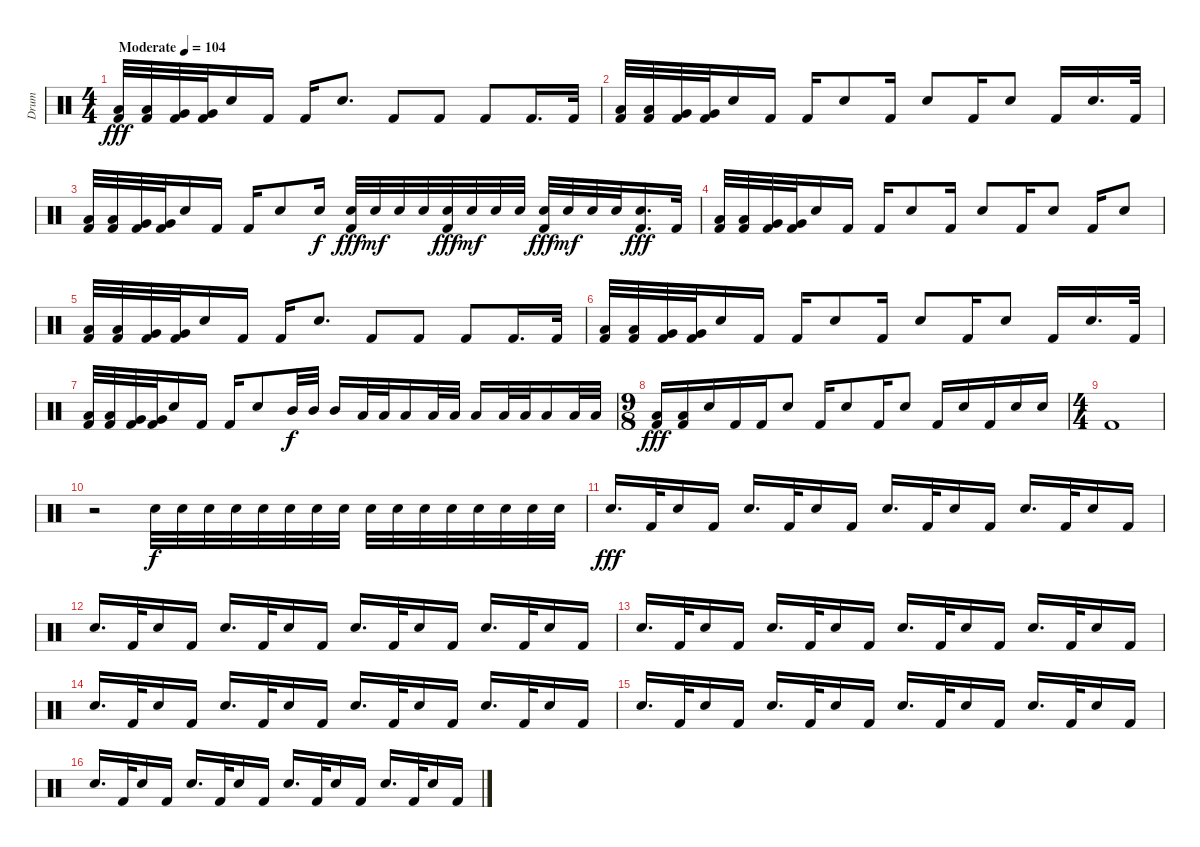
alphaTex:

\track ("Drum" "Drum") {instrument percussion}
\staff {score}
\articulation defaults
\ts (4 4)
\tempo (104 "Moderate")
\clef neutral
\ks c
("Low Tom (hit)" "Kick (hit) 2").32{dy fff} ("Low Tom (hit)" "Kick (hit) 2").32 ("Very Low Tom (hit)" "Kick (hit) 2").32 ("Very Low Tom (hit)" "Kick (hit) 2").32 "Electric Snare (hit)".16 "Kick (hit) 2".16 "Kick (hit) 2".16 "Electric Snare (hit)".8{d} "Kick (hit) 2".8 "Kick (hit) 2".8 "Kick (hit) 2".8 "Kick (hit) 2".16{d} "Kick (hit) 2".32 |
("Low Tom (hit)" "Kick (hit) 2").32 ("Low Tom (hit)" "Kick (hit) 2").32 ("Very Low Tom (hit)" "Kick (hit) 2").32 ("Very Low Tom (hit)" "Kick (hit) 2").32 "Electric Snare (hit)".16 "Kick (hit) 2".16 "Kick (hit) 2".16 "Electric Snare (hit)".8 "Kick (hit) 2".16 "Electric Snare (hit)".8 "Kick (hit) 2".16 "Electric Snare (hit)".8 "Kick (hit) 2".16 "Electric Snare (hit)".16{d} "Kick (hit) 2".32 |
("Low Tom (hit)" "Kick (hit) 2").32 ("Low Tom (hit)" "Kick (hit) 2").32 ("Very Low Tom (hit)" "Kick (hit) 2").32 ("Very Low Tom (hit)" "Kick (hit) 2").32 "Electric Snare (hit)".16 "Kick (hit) 2".16 "Kick (hit) 2".16 "Electric Snare (hit)".8 "Electric Snare (hit)".16{dy f} ("Electric Snare (hit)" "Kick (hit) 2").32{dy fff} "Electric Snare (hit)".32{dy mf} "Electric Snare (hit)".32 "Electric Snare (hit)".32 ("Electric Snare (hit)" "Kick (hit) 2").32{dy fff} "Electric Snare (hit)".32{dy mf} "Electric Snare (hit)".32 "Electric Snare (hit)".32 ("Electric Snare (hit)" "Kick (hit) 2").32{dy fff} "Electric Snare (hit)".32{dy mf} "Electric Snare (hit)".32 "Electric Snare (hit)".32 ("Electric Snare (hit)" "Kick (hit) 2").16{d dy fff} "Kick (hit) 2".32 |
("Low Tom (hit)" "Kick (hit) 2").32 ("Low Tom (hit)" "Kick (hit) 2").32 ("Very Low Tom (hit)" "Kick (hit) 2").32 ("Very Low Tom (hit)" "Kick (hit) 2").32 "Electric Snare (hit)".16 "Kick (hit) 2".16 "Kick (hit) 2".16 "Electric Snare (hit)".8 "Kick (hit) 2".16 "Electric Snare (hit)".8 "Kick (hit) 2".16 "Electric Snare (hit)".8 "Kick (hit) 2".16 "Electric Snare (hit)".8 |
("Low Tom (hit)" "Kick (hit) 2").32 ("Low Tom (hit)" "Kick (hit) 2").32 ("Very Low Tom (hit)" "Kick (hit) 2").32 ("Very Low Tom (hit)" "Kick (hit) 2").32 "Electric Snare (hit)".16 "Kick (hit) 2".16 "Kick (hit) 2".16 "Electric Snare (hit)".8{d} "Kick (hit) 2".8 "Kick (hit) 2".8 "Kick (hit) 2".8 "Kick (hit) 2".16{d} "Kick (hit) 2".32 |
("Low Tom (hit)" "Kick (hit) 2").32 ("Low Tom (hit)" "Kick (hit) 2").32 ("Very Low Tom (hit)" "Kick (hit) 2").32 ("Very Low Tom (hit)" "Kick (hit) 2").32 "Electric Snare (hit)".16 "Kick (hit) 2".16 "Kick (hit) 2".16 "Electric Snare (hit)".8 "Kick (hit) 2".16 "Electric Snare (hit)".8 "Kick (hit) 2".16 "Electric Snare (hit)".8 "Kick (hit) 2".16 "Electric Snare (hit)".16{d} "Kick (hit) 2".32 |
("Low Tom (hit)" "Kick (hit) 2").32 ("Low Tom (hit)" "Kick (hit) 2").32 ("Very Low Tom (hit)" "Kick (hit) 2").32 ("Very Low Tom (hit)" "Kick (hit) 2").32 "Electric Snare (hit)".16 "Kick (hit) 2".16 "Kick (hit) 2".16 "Electric Snare (hit)".8 "Mid Tom (hit)".32{dy f} "Mid Tom (hit)".32 "Mid Tom (hit)".16 "Low Tom (hit)".32 "Low Tom (hit)".32 "Low Tom (hit)".16 "Low Tom (hit)".32 "Low Tom (hit)".32 "Low Tom (hit)".16 "Low Tom (hit)".32 "Low Tom (hit)".32 "Low Tom (hit)".16 "Low Tom (hit)".32 "Low Tom (hit)".32 |
\ts (9 8)
("Low Tom (hit)" "Kick (hit) 2").16{dy fff} ("Low Tom (hit)" "Kick (hit) 2").16 "Electric Snare (hit)".16 "Kick (hit) 2".16 "Kick (hit) 2".16 "Electric Snare (hit)".8 "Kick (hit) 2".16 "Electric Snare (hit)".8 "Kick (hit) 2".16 "Electric Snare (hit)".8 "Kick (hit) 2".16 "Electric Snare (hit)".16 "Kick (hit) 2".16 "Electric Snare (hit)".16 "Electric Snare (hit)".16 |
\ts (4 4)
"Kick (hit) 2".1 |
r.2 "Electric Snare (hit)".32{dy f} "Electric Snare (hit)".32 "Electric Snare (hit)".32 "Electric Snare (hit)".32 "Electric Snare (hit)".32 "Electric Snare (hit)".32 "Electric Snare (hit)".32 "Electric Snare (hit)".32 "Electric Snare (hit)".32 "Electric Snare (hit)".32 "Electric Snare (hit)".32 "Electric Snare (hit)".32 "Electric Snare (hit)".32 "Electric Snare (hit)".32 "Electric Snare (hit)".32 "Electric Snare (hit)".32 |
"Electric Snare (hit)".16{d dy fff} "Kick (hit) 2".32 "Electric Snare (hit)".16 "Kick (hit) 2".16 "Electric Snare (hit)".16{d} "Kick (hit) 2".32 "Electric Snare (hit)".16 "Kick (hit) 2".16 "Electric Snare (hit)".16{d} "Kick (hit) 2".32 "Electric Snare (hit)".16 "Kick (hit) 2".16 "Electric Snare (hit)".16{d} "Kick (hit) 2".32 "Electric Snare (hit)".16 "Kick (hit) 2".16 |
"Electric Snare (hit)".16{d} "Kick (hit) 2".32 "Electric Snare (hit)".16 "Kick (hit) 2".16 "Electric Snare (hit)".16{d} "Kick (hit) 2".32 "Electric Snare (hit)".16 "Kick (hit) 2".16 "Electric Snare (hit)".16{d} "Kick (hit) 2".32 "Electric Snare (hit)".16 "Kick (hit) 2".16 "Electric Snare (hit)".16{d} "Kick (hit) 2".32 "Electric Snare (hit)".16 "Kick (hit) 2".16 |
"Electric Snare (hit)".16{d} "Kick (hit) 2".32 "Electric Snare (hit)".16 "Kick (hit) 2".16 "Electric Snare (hit)".16{d} "Kick (hit) 2".32 "Electric Snare (hit)".16 "Kick (hit) 2".16 "Electric Snare (hit)".16{d} "Kick (hit) 2".32 "Electric Snare (hit)".16 "Kick (hit) 2".16 "Electric Snare (hit)".16{d} "Kick (hit) 2".32 "Electric Snare (hit)".16 "Kick (hit) 2".16 |
"Electric Snare (hit)".16{d} "Kick (hit) 2".32 "Electric Snare (hit)".16 "Kick (hit) 2".16 "Electric Snare (hit)".16{d} "Kick (hit) 2".32 "Electric Snare (hit)".16 "Kick (hit) 2".16 "Electric Snare (hit)".16{d} "Kick (hit) 2".32 "Electric Snare (hit)".16 "Kick (hit) 2".16 "Electric Snare (hit)".16{d} "Kick (hit) 2".32 "Electric Snare (hit)".16 "Kick (hit) 2".16 |
"Electric Snare (hit)".16{d} "Kick (hit) 2".32 "Electric Snare (hit)".16 "Kick (hit) 2".16 "Electric Snare (hit)".16{d} "Kick (hit) 2".32 "Electric Snare (hit)".16 "Kick (hit) 2".16 "Electric Snare (hit)".16{d} "Kick (hit) 2".32 "Electric Snare (hit)".16 "Kick (hit) 2".16 "Electric Snare (hit)".16{d} "Kick (hit) 2".32 "Electric Snare (hit)".16 "Kick (hit) 2".16 |
"Electric Snare (hit)".16{d} "Kick (hit) 2".32 "Electric Snare (hit)".16 "Kick (hit) 2".16 "Electric Snare (hit)".16{d} "Kick (hit) 2".32 "Electric Snare (hit)".16 "Kick (hit) 2".16 "Electric Snare (hit)".16{d} "Kick (hit) 2".32 "Electric Snare (hit)".16 "Kick (hit) 2".16 "Electric Snare (hit)".16{d} "Kick (hit) 2".32 "Electric Snare (hit)".16 "Kick (hit) 2".16
